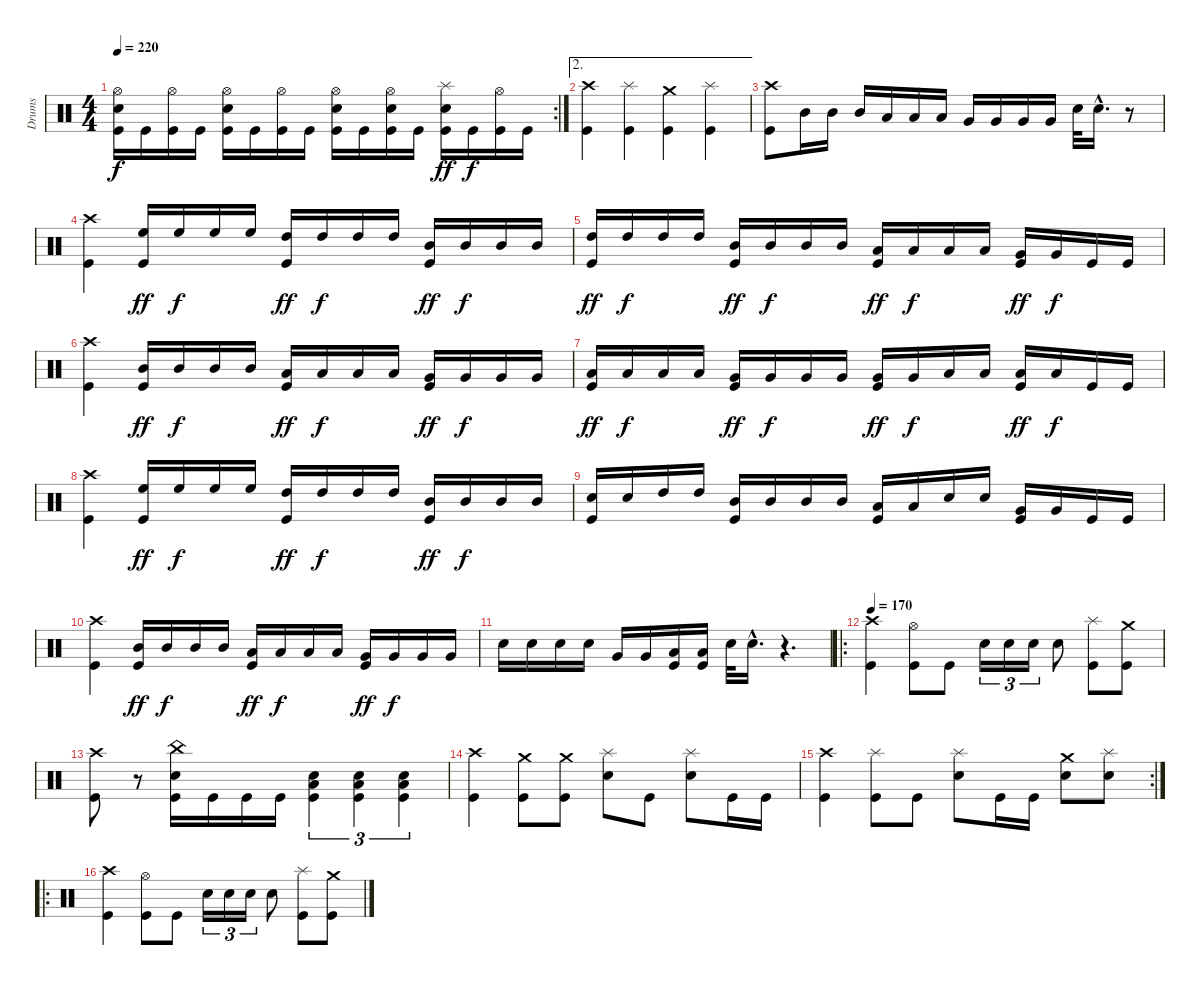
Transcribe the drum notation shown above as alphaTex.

\track ("Drums" "Drums") {instrument percussion}
\staff {score}
\articulation defaults
\rc 2
\ts (4 4)
\tempo 220
\clef neutral
\ks c
("Hi-Hat (open)" "Electric Snare (hit)" "Kick (hit)").16{dy f} "Kick (hit)".16 ("Hi-Hat (open)" "Kick (hit)").16 "Kick (hit)".16 ("Hi-Hat (open)" "Electric Snare (hit)" "Kick (hit)").16 "Kick (hit)".16 ("Hi-Hat (open)" "Kick (hit)").16 "Kick (hit)".16 ("Hi-Hat (open)" "Electric Snare (hit)" "Kick (hit)").16 "Kick (hit)".16 ("Hi-Hat (open)" "Electric Snare (hit)" "Kick (hit)").16 "Kick (hit)".16 ("Splash (hit)" "Electric Snare (hit)" "Kick (hit)").16{dy ff} "Kick (hit)".16{dy f} ("Hi-Hat (open)" "Kick (hit)").16 "Kick (hit)".16 |
\ae 2
("Crash high (hit)" "Kick (hit)").4 ("Splash (hit)" "Kick (hit)").4 ("Crash medium (hit)" "Kick (hit)").4 ("Splash (hit)" "Kick (hit)").4 |
("Crash high (hit)" "Kick (hit)").8 "Mid Tom (hit)".16 "Mid Tom (hit)".16 "Mid Tom (hit)".16 "Low Tom (hit)".16 "Low Tom (hit)".16 "Low Tom (hit)".16 "Very Low Tom (hit)".16 "Very Low Tom (hit)".16 "Very Low Tom (hit)".16 "Very Low Tom (hit)".16 "Electric Snare (hit)".32 "Electric Snare (hit)"{hac}.16{d} r.8 |
("Crash high (hit)" "Kick (hit)").4 ("High Floor Tom (hit)" "Kick (hit)").16{dy ff} "High Floor Tom (hit)".16{dy f} "High Floor Tom (hit)".16 "High Floor Tom (hit)".16 ("High Tom (hit)" "Kick (hit)").16{dy ff} "High Tom (hit)".16{dy f} "High Tom (hit)".16 "High Tom (hit)".16 ("Mid Tom (hit)" "Kick (hit)").16{dy ff} "Mid Tom (hit)".16{dy f} "Mid Tom (hit)".16 "Mid Tom (hit)".16 |
("High Tom (hit)" "Kick (hit)").16{dy ff} "High Tom (hit)".16{dy f} "High Tom (hit)".16 "High Tom (hit)".16 ("Mid Tom (hit)" "Kick (hit)").16{dy ff} "Mid Tom (hit)".16{dy f} "Mid Tom (hit)".16 "Mid Tom (hit)".16 ("Low Tom (hit)" "Kick (hit)").16{dy ff} "Low Tom (hit)".16{dy f} "Low Tom (hit)".16 "Low Tom (hit)".16 ("Very Low Tom (hit)" "Kick (hit)").16{dy ff} "Very Low Tom (hit)".16{dy f} "Kick (hit)".16 "Kick (hit)".16 |
("Crash high (hit)" "Kick (hit)").4 ("Mid Tom (hit)" "Kick (hit)").16{dy ff} "Mid Tom (hit)".16{dy f} "Mid Tom (hit)".16 "Mid Tom (hit)".16 ("Low Tom (hit)" "Kick (hit)").16{dy ff} "Low Tom (hit)".16{dy f} "Low Tom (hit)".16 "Low Tom (hit)".16 ("Very Low Tom (hit)" "Kick (hit)").16{dy ff} "Very Low Tom (hit)".16{dy f} "Very Low Tom (hit)".16 "Very Low Tom (hit)".16 |
("Low Tom (hit)" "Kick (hit)").16{dy ff} "Low Tom (hit)".16{dy f} "Low Tom (hit)".16 "Low Tom (hit)".16 ("Very Low Tom (hit)" "Kick (hit)").16{dy ff} "Very Low Tom (hit)".16{dy f} "Very Low Tom (hit)".16 "Very Low Tom (hit)".16 ("Very Low Tom (hit)" "Kick (hit)").16{dy ff} "Very Low Tom (hit)".16{dy f} "Low Floor Tom (hit)".16 "Low Floor Tom (hit)".16 ("Low Floor Tom (hit)" "Kick (hit)").16{dy ff} "Low Floor Tom (hit)".16{dy f} "Kick (hit)".16 "Kick (hit)".16 |
("Crash high (hit)" "Kick (hit)").4 ("High Floor Tom (hit)" "Kick (hit)").16{dy ff} "High Floor Tom (hit)".16{dy f} "High Floor Tom (hit)".16 "High Floor Tom (hit)".16 ("High Tom (hit)" "Kick (hit)").16{dy ff} "High Tom (hit)".16{dy f} "High Tom (hit)".16 "High Tom (hit)".16 ("Mid Tom (hit)" "Kick (hit)").16{dy ff} "Mid Tom (hit)".16{dy f} "Mid Tom (hit)".16 "Mid Tom (hit)".16 |
("Electric Snare (hit)" "Kick (hit)").16 "Electric Snare (hit)".16 "High Tom (hit)".16 "High Tom (hit)".16 ("Mid Tom (hit)" "Kick (hit)").16 "Mid Tom (hit)".16 "Mid Tom (hit)".16 "Mid Tom (hit)".16 ("Low Tom (hit)" "Kick (hit)").16 "Low Tom (hit)".16 "Electric Snare (hit)".16 "Electric Snare (hit)".16 ("Very Low Tom (hit)" "Kick (hit)").16 "Very Low Tom (hit)".16 "Kick (hit)".16 "Kick (hit)".16 |
("Crash high (hit)" "Kick (hit)").4 ("Mid Tom (hit)" "Kick (hit)").16{dy ff} "Mid Tom (hit)".16{dy f} "Mid Tom (hit)".16 "Mid Tom (hit)".16 ("Low Tom (hit)" "Kick (hit)").16{dy ff} "Low Tom (hit)".16{dy f} "Low Tom (hit)".16 "Low Tom (hit)".16 ("Very Low Tom (hit)" "Kick (hit)").16{dy ff} "Very Low Tom (hit)".16{dy f} "Very Low Tom (hit)".16 "Very Low Tom (hit)".16 |
"Electric Snare (hit)".16 "Electric Snare (hit)".16 "Electric Snare (hit)".16 "Electric Snare (hit)".16 "Very Low Tom (hit)".16 "Very Low Tom (hit)".16 ("Low Floor Tom (hit)" "Kick (hit)").16 ("Low Floor Tom (hit)" "Kick (hit)").16 "Electric Snare (hit)".32 "Electric Snare (hit)"{hac}.16{d} r.4{d} |
\ro
\tempo 170
("Crash high (hit)" "Kick (hit)").4 ("Hi-Hat (open)" "Kick (hit)").8 "Kick (hit)".8 "Electric Snare (hit)".16{tu (3 2)} "Electric Snare (hit)".16{tu (3 2)} "Electric Snare (hit)".16{tu (3 2)} "Electric Snare (hit)".8 ("Splash (hit)" "Kick (hit)").8 ("Crash medium (hit)" "Kick (hit)").8 |
("Crash high (hit)" "Kick (hit)").8 r.8 ("China (hit)" "Electric Snare (hit)" "Kick (hit)").16 "Kick (hit)".16 "Kick (hit)".16 "Kick (hit)".16 ("Low Tom (hit)" "Electric Snare (hit)" "Kick (hit)").4{tu (3 2)} ("Low Tom (hit)" "Electric Snare (hit)" "Kick (hit)").4{tu (3 2)} ("Low Tom (hit)" "Electric Snare (hit)" "Kick (hit)").4{tu (3 2)} |
("Crash high (hit)" "Kick (hit)").4 ("Crash medium (hit)" "Kick (hit)").8 ("Crash medium (hit)" "Kick (hit)").8 ("Splash (hit)" "Electric Snare (hit)").8 "Kick (hit)".8 ("Splash (hit)" "Electric Snare (hit)").8 "Kick (hit)".16 "Kick (hit)".16 |
\rc 2
("Crash high (hit)" "Kick (hit)").4 ("Splash (hit)" "Kick (hit)").8 "Kick (hit)".8 ("Splash (hit)" "Electric Snare (hit)").8 "Kick (hit)".16 "Kick (hit)".16 ("Crash medium (hit)" "Electric Snare (hit)").8 ("Splash (hit)" "Electric Snare (hit)").8 |
\ro
("Crash high (hit)" "Kick (hit)").4 ("Hi-Hat (open)" "Kick (hit)").8 "Kick (hit)".8 "Electric Snare (hit)".16{tu (3 2)} "Electric Snare (hit)".16{tu (3 2)} "Electric Snare (hit)".16{tu (3 2)} "Electric Snare (hit)".8 ("Splash (hit)" "Kick (hit)").8 ("Crash medium (hit)" "Kick (hit)").8
